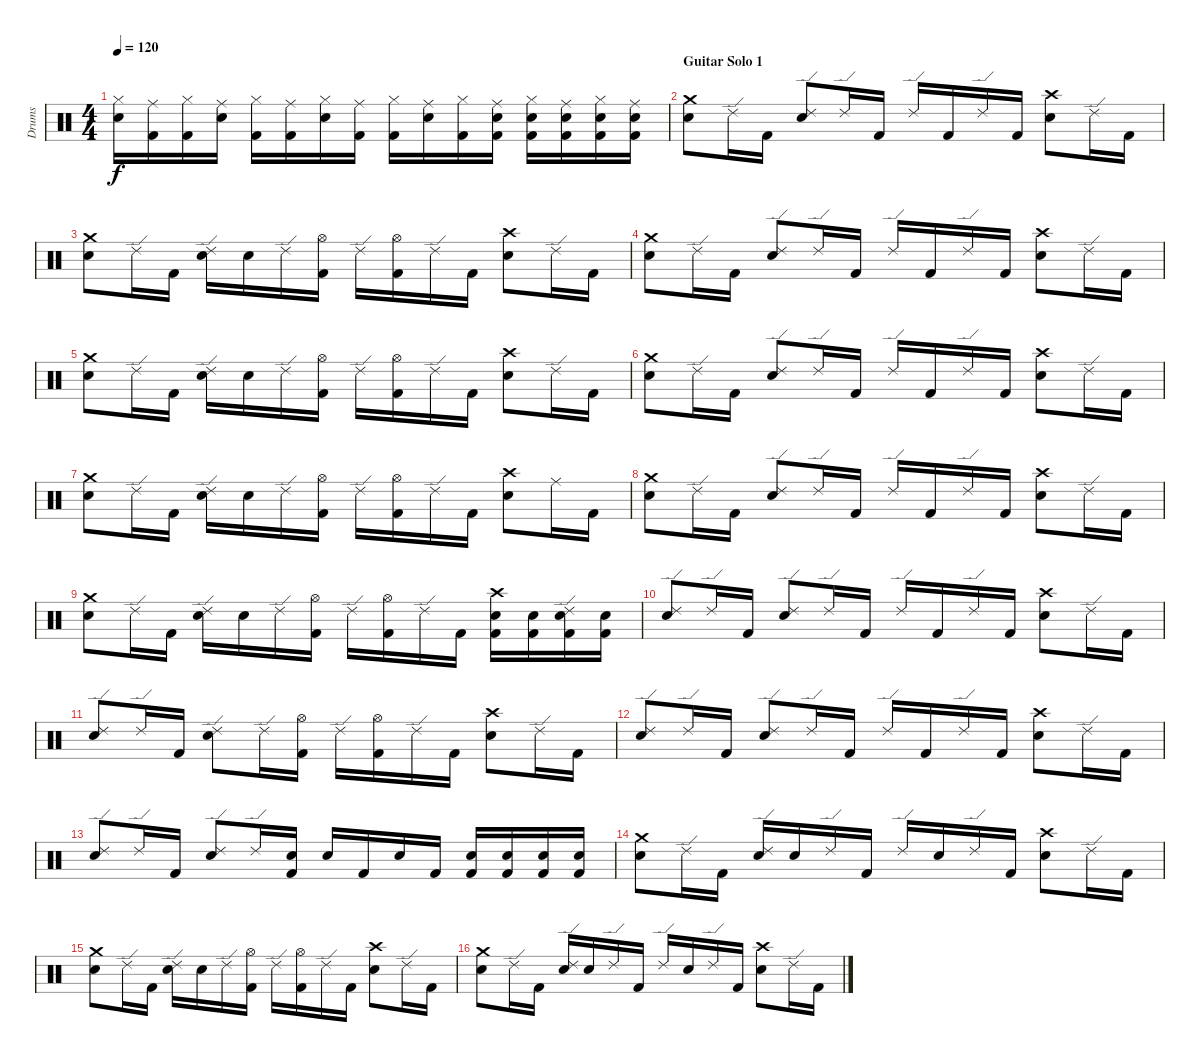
\track ("Drums" "Drums") {instrument percussion}
\staff {score}
\articulation defaults
\ts (4 4)
\tempo 120
\clef neutral
\ks c
("Hi-Hat (closed)" "Electric Snare (hit)").16{dy f} ("Ride (middle)" "Kick (hit) 2").16 ("Hi-Hat (closed)" "Kick (hit) 2").16 ("Ride (middle)" "Electric Snare (hit)").16 ("Hi-Hat (closed)" "Kick (hit) 2").16 ("Ride (middle)" "Kick (hit) 2").16 ("Hi-Hat (closed)" "Electric Snare (hit)").16 ("Ride (middle)" "Kick (hit) 2").16 ("Hi-Hat (closed)" "Kick (hit) 2").16 ("Ride (middle)" "Electric Snare (hit)").16 ("Hi-Hat (closed)" "Kick (hit) 2").16 ("Ride (middle)" "Electric Snare (hit)" "Kick (hit) 2").16 ("Hi-Hat (closed)" "Electric Snare (hit)" "Kick (hit) 2").16 ("Ride (middle)" "Electric Snare (hit)" "Kick (hit) 2").16 ("Hi-Hat (closed)" "Electric Snare (hit)" "Kick (hit) 2").16 ("Ride (middle)" "Electric Snare (hit)" "Kick (hit) 2").16 |
\section ("" "Guitar Solo 1")
("Crash medium (hit)" "Electric Snare (hit)").8 "Ride (edge) 2".16 "Kick (hit) 2".16 ("Ride (edge) 2" "Electric Snare (hit)").8 "Ride (edge) 2".16 "Kick (hit) 2".16 "Ride (edge) 2".16 "Kick (hit) 2".16 "Ride (edge) 2".16 "Kick (hit) 2".16 ("Crash high (hit)" "Electric Snare (hit)").8 "Ride (edge) 2".16 "Kick (hit) 2".16 |
("Crash medium (hit)" "Electric Snare (hit)").8 "Ride (edge) 2".16 "Kick (hit) 2".16 ("Ride (edge) 2" "Electric Snare (hit)").16 "Electric Snare (hit)".16 "Ride (edge) 2".16 ("Hi-Hat (open)" "Kick (hit) 2").16 "Ride (edge) 2".16 ("Hi-Hat (open)" "Kick (hit) 2").16 "Ride (edge) 2".16 "Kick (hit) 2".16 ("Crash high (hit)" "Electric Snare (hit)").8 "Ride (edge) 2".16 "Kick (hit) 2".16 |
("Crash medium (hit)" "Electric Snare (hit)").8 "Ride (edge) 2".16 "Kick (hit) 2".16 ("Ride (edge) 2" "Electric Snare (hit)").8 "Ride (edge) 2".16 "Kick (hit) 2".16 "Ride (edge) 2".16 "Kick (hit) 2".16 "Ride (edge) 2".16 "Kick (hit) 2".16 ("Crash high (hit)" "Electric Snare (hit)").8 "Ride (edge) 2".16 "Kick (hit) 2".16 |
("Crash medium (hit)" "Electric Snare (hit)").8 "Ride (edge) 2".16 "Kick (hit) 2".16 ("Ride (edge) 2" "Electric Snare (hit)").16 "Electric Snare (hit)".16 "Ride (edge) 2".16 ("Hi-Hat (open)" "Kick (hit) 2").16 "Ride (edge) 2".16 ("Hi-Hat (open)" "Kick (hit) 2").16 "Ride (edge) 2".16 "Kick (hit) 2".16 ("Crash high (hit)" "Electric Snare (hit)").8 "Ride (edge) 2".16 "Kick (hit) 2".16 |
("Crash medium (hit)" "Electric Snare (hit)").8 "Ride (edge) 2".16 "Kick (hit) 2".16 ("Ride (edge) 2" "Electric Snare (hit)").8 "Ride (edge) 2".16 "Kick (hit) 2".16 "Ride (edge) 2".16 "Kick (hit) 2".16 "Ride (edge) 2".16 "Kick (hit) 2".16 ("Crash high (hit)" "Electric Snare (hit)").8 "Ride (edge) 2".16 "Kick (hit) 2".16 |
("Crash medium (hit)" "Electric Snare (hit)").8 "Ride (edge) 2".16 "Kick (hit) 2".16 ("Ride (edge) 2" "Electric Snare (hit)").16 "Electric Snare (hit)".16 "Ride (edge) 2".16 ("Hi-Hat (open)" "Kick (hit) 2").16 "Ride (edge) 2".16 ("Hi-Hat (open)" "Kick (hit) 2").16 "Ride (edge) 2".16 "Kick (hit) 2".16 ("Crash high (hit)" "Electric Snare (hit)").8 "Ride (middle)".16 "Kick (hit) 2".16 |
("Crash medium (hit)" "Electric Snare (hit)").8 "Ride (edge) 2".16 "Kick (hit) 2".16 ("Ride (edge) 2" "Electric Snare (hit)").8 "Ride (edge) 2".16 "Kick (hit) 2".16 "Ride (edge) 2".16 "Kick (hit) 2".16 "Ride (edge) 2".16 "Kick (hit) 2".16 ("Crash high (hit)" "Electric Snare (hit)").8 "Ride (edge) 2".16 "Kick (hit) 2".16 |
("Crash medium (hit)" "Electric Snare (hit)").8 "Ride (edge) 2".16 "Kick (hit) 2".16 ("Ride (edge) 2" "Electric Snare (hit)").16 "Electric Snare (hit)".16 "Ride (edge) 2".16 ("Hi-Hat (open)" "Kick (hit) 2").16 "Ride (edge) 2".16 ("Hi-Hat (open)" "Kick (hit) 2").16 "Ride (edge) 2".16 "Kick (hit) 2".16 ("Crash high (hit)" "Electric Snare (hit)" "Kick (hit) 2").16 ("Electric Snare (hit)" "Kick (hit) 2").16 ("Ride (edge) 2" "Electric Snare (hit)" "Kick (hit) 2").16 ("Electric Snare (hit)" "Kick (hit) 2").16 |
("Ride (edge) 2" "Electric Snare (hit)").8 "Ride (edge) 2".16 "Kick (hit) 2".16 ("Ride (edge) 2" "Electric Snare (hit)").8 "Ride (edge) 2".16 "Kick (hit) 2".16 "Ride (edge) 2".16 "Kick (hit) 2".16 "Ride (edge) 2".16 "Kick (hit) 2".16 ("Crash high (hit)" "Electric Snare (hit)").8 "Ride (edge) 2".16 "Kick (hit) 2".16 |
("Ride (edge) 2" "Electric Snare (hit)").8 "Ride (edge) 2".16 "Kick (hit) 2".16 ("Ride (edge) 2" "Electric Snare (hit)").8 "Ride (edge) 2".16 ("Hi-Hat (open)" "Kick (hit) 2").16 "Ride (edge) 2".16 ("Hi-Hat (open)" "Kick (hit) 2").16 "Ride (edge) 2".16 "Kick (hit) 2".16 ("Crash high (hit)" "Electric Snare (hit)").8 "Ride (edge) 2".16 "Kick (hit) 2".16 |
("Ride (edge) 2" "Electric Snare (hit)").8 "Ride (edge) 2".16 "Kick (hit) 2".16 ("Ride (edge) 2" "Electric Snare (hit)").8 "Ride (edge) 2".16 "Kick (hit) 2".16 "Ride (edge) 2".16 "Kick (hit) 2".16 "Ride (edge) 2".16 "Kick (hit) 2".16 ("Crash high (hit)" "Electric Snare (hit)").8 "Ride (edge) 2".16 "Kick (hit) 2".16 |
("Ride (edge) 2" "Electric Snare (hit)").8 "Ride (edge) 2".16 "Kick (hit) 2".16 ("Ride (edge) 2" "Electric Snare (hit)").8 "Ride (edge) 2".16 ("Electric Snare (hit)" "Kick (hit) 2").16 "Electric Snare (hit)".16 "Kick (hit) 2".16 "Electric Snare (hit)".16 "Kick (hit) 2".16 ("Electric Snare (hit)" "Kick (hit) 2").16 ("Electric Snare (hit)" "Kick (hit) 2").16 ("Electric Snare (hit)" "Kick (hit) 2").16 ("Electric Snare (hit)" "Kick (hit) 2").16 |
("Crash medium (hit)" "Electric Snare (hit)").8 "Ride (edge) 2".16 "Kick (hit) 2".16 ("Ride (edge) 2" "Electric Snare (hit)").16 "Electric Snare (hit)".16 "Ride (edge) 2".16 "Kick (hit) 2".16 "Ride (edge) 2".16 "Electric Snare (hit)".16 "Ride (edge) 2".16 "Kick (hit) 2".16 ("Crash high (hit)" "Electric Snare (hit)").8 "Ride (edge) 2".16 "Kick (hit) 2".16 |
("Crash medium (hit)" "Electric Snare (hit)").8 "Ride (edge) 2".16 "Kick (hit) 2".16 ("Ride (edge) 2" "Electric Snare (hit)").16 "Electric Snare (hit)".16 "Ride (edge) 2".16 ("Hi-Hat (open)" "Kick (hit) 2").16 "Ride (edge) 2".16 ("Hi-Hat (open)" "Kick (hit) 2").16 "Ride (edge) 2".16 "Kick (hit) 2".16 ("Crash high (hit)" "Electric Snare (hit)").8 "Ride (edge) 2".16 "Kick (hit) 2".16 |
("Crash medium (hit)" "Electric Snare (hit)").8 "Ride (edge) 2".16 "Kick (hit) 2".16 ("Ride (edge) 2" "Electric Snare (hit)").16 "Electric Snare (hit)".16 "Ride (edge) 2".16 "Kick (hit) 2".16 "Ride (edge) 2".16 "Electric Snare (hit)".16 "Ride (edge) 2".16 "Kick (hit) 2".16 ("Crash high (hit)" "Electric Snare (hit)").8 "Ride (edge) 2".16 "Kick (hit) 2".16
